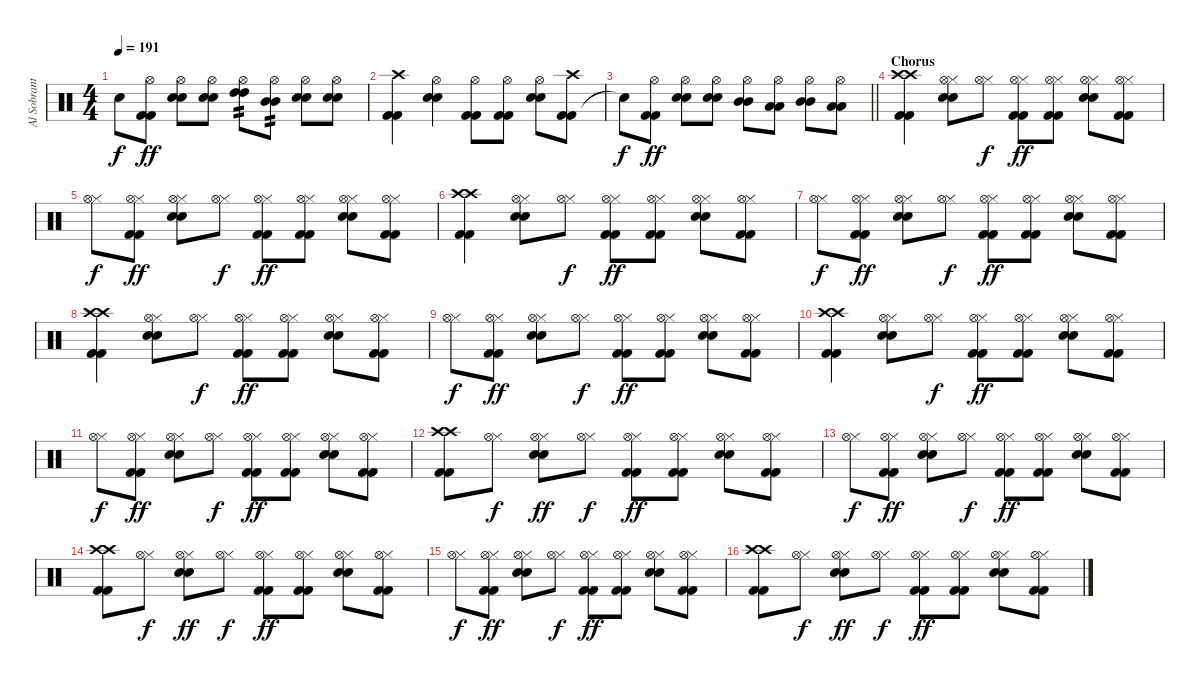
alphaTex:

\track ("Al Sobrante (Drums)" "Al Sobrant") {instrument percussion}
\staff {score}
\articulation defaults
\ts (4 4)
\tempo 191
\clef neutral
\ks c "Snare (hit)"{t}.8{dy f}
("Kick (hit) 2" "Kick (hit) 2" "Hi-Hat (open)").8{dy ff} ("Electric Snare (hit)" "Electric Snare (hit)" "Hi-Hat (open)").8 ("Electric Snare (hit)" "Electric Snare (hit)" "Hi-Hat (open)").8 ("High Tom (hit)" "High Tom (hit)" "Hi-Hat (open)").8{tp 2} ("Mid Tom (hit)" "Mid Tom (hit)" "Hi-Hat (open)").8{tp 2} ("Electric Snare (hit)" "Electric Snare (hit)" "Hi-Hat (open)").8 ("Electric Snare (hit)" "Electric Snare (hit)" "Hi-Hat (open)").8 |
("Kick (hit) 2" "Kick (hit) 2" "Crash high (hit)").4 ("Electric Snare (hit)" "Electric Snare (hit)" "Hi-Hat (open)").4 ("Kick (hit) 2" "Kick (hit) 2" "Hi-Hat (open)").8 ("Kick (hit) 2" "Kick (hit) 2" "Hi-Hat (open)").8 ("Electric Snare (hit)" "Electric Snare (hit)" "Hi-Hat (open)").8 ("Kick (hit) 2" "Kick (hit) 2" "Crash high (hit)").8 |
\barLineRight lightlight "Snare (hit)"{t}.8{dy f}
("Kick (hit) 2" "Kick (hit) 2" "Hi-Hat (open)").8{dy ff} ("Electric Snare (hit)" "Electric Snare (hit)" "Hi-Hat (open)").8 ("Electric Snare (hit)" "Electric Snare (hit)" "Hi-Hat (open)").8 ("Mid Tom (hit)" "Mid Tom (hit)" "Hi-Hat (open)").8 ("Low Tom (hit)" "Low Tom (hit)" "Hi-Hat (open)").8 ("Mid Tom (hit)" "Mid Tom (hit)" "Hi-Hat (open)").8 ("Low Tom (hit)" "Low Tom (hit)" "Hi-Hat (open)").8 |
\section ("" "Chorus")
("Kick (hit) 2" "Kick (hit) 2" "Crash high (hit)" "Crash high (hit)").4 ("Electric Snare (hit)" "Electric Snare (hit)" "Hi-Hat (closed)" "Hi-Hat (open)").8 ("Hi-Hat (closed)" "Hi-Hat (open)").8{dy f} ("Kick (hit) 2" "Kick (hit) 2" "Hi-Hat (closed)" "Hi-Hat (open)").8{dy ff} ("Kick (hit) 2" "Kick (hit) 2" "Hi-Hat (closed)" "Hi-Hat (open)").8 ("Electric Snare (hit)" "Electric Snare (hit)" "Hi-Hat (closed)" "Hi-Hat (open)").8 ("Kick (hit) 2" "Kick (hit) 2" "Hi-Hat (closed)" "Hi-Hat (open)").8 |
("Hi-Hat (closed)" "Hi-Hat (open)").8{dy f} ("Kick (hit) 2" "Kick (hit) 2" "Hi-Hat (closed)" "Hi-Hat (open)").8{dy ff} ("Electric Snare (hit)" "Electric Snare (hit)" "Hi-Hat (closed)" "Hi-Hat (open)").8 ("Hi-Hat (closed)" "Hi-Hat (open)").8{dy f} ("Kick (hit) 2" "Kick (hit) 2" "Hi-Hat (closed)" "Hi-Hat (open)").8{dy ff} ("Kick (hit) 2" "Kick (hit) 2" "Hi-Hat (closed)" "Hi-Hat (open)").8 ("Electric Snare (hit)" "Electric Snare (hit)" "Hi-Hat (closed)" "Hi-Hat (open)").8 ("Kick (hit) 2" "Kick (hit) 2" "Hi-Hat (closed)" "Hi-Hat (open)").8 |
("Kick (hit) 2" "Kick (hit) 2" "Crash high (hit)" "Crash high (hit)").4 ("Electric Snare (hit)" "Electric Snare (hit)" "Hi-Hat (closed)" "Hi-Hat (open)").8 ("Hi-Hat (closed)" "Hi-Hat (open)").8{dy f} ("Kick (hit) 2" "Kick (hit) 2" "Hi-Hat (closed)" "Hi-Hat (open)").8{dy ff} ("Kick (hit) 2" "Kick (hit) 2" "Hi-Hat (closed)" "Hi-Hat (open)").8 ("Electric Snare (hit)" "Electric Snare (hit)" "Hi-Hat (closed)" "Hi-Hat (open)").8 ("Kick (hit) 2" "Kick (hit) 2" "Hi-Hat (closed)" "Hi-Hat (open)").8 |
("Hi-Hat (closed)" "Hi-Hat (open)").8{dy f} ("Kick (hit) 2" "Kick (hit) 2" "Hi-Hat (closed)" "Hi-Hat (open)").8{dy ff} ("Electric Snare (hit)" "Electric Snare (hit)" "Hi-Hat (closed)" "Hi-Hat (open)").8 ("Hi-Hat (closed)" "Hi-Hat (open)").8{dy f} ("Kick (hit) 2" "Kick (hit) 2" "Hi-Hat (closed)" "Hi-Hat (open)").8{dy ff} ("Kick (hit) 2" "Kick (hit) 2" "Hi-Hat (closed)" "Hi-Hat (open)").8 ("Electric Snare (hit)" "Electric Snare (hit)" "Hi-Hat (closed)" "Hi-Hat (open)").8 ("Kick (hit) 2" "Kick (hit) 2" "Hi-Hat (closed)" "Hi-Hat (open)").8 |
("Kick (hit) 2" "Kick (hit) 2" "Crash high (hit)" "Crash high (hit)").4 ("Electric Snare (hit)" "Electric Snare (hit)" "Hi-Hat (closed)" "Hi-Hat (open)").8 ("Hi-Hat (closed)" "Hi-Hat (open)").8{dy f} ("Kick (hit) 2" "Kick (hit) 2" "Hi-Hat (closed)" "Hi-Hat (open)").8{dy ff} ("Kick (hit) 2" "Kick (hit) 2" "Hi-Hat (closed)" "Hi-Hat (open)").8 ("Electric Snare (hit)" "Electric Snare (hit)" "Hi-Hat (closed)" "Hi-Hat (open)").8 ("Kick (hit) 2" "Kick (hit) 2" "Hi-Hat (closed)" "Hi-Hat (open)").8 |
("Hi-Hat (closed)" "Hi-Hat (open)").8{dy f} ("Kick (hit) 2" "Kick (hit) 2" "Hi-Hat (closed)" "Hi-Hat (open)").8{dy ff} ("Electric Snare (hit)" "Electric Snare (hit)" "Hi-Hat (closed)" "Hi-Hat (open)").8 ("Hi-Hat (closed)" "Hi-Hat (open)").8{dy f} ("Kick (hit) 2" "Kick (hit) 2" "Hi-Hat (closed)" "Hi-Hat (open)").8{dy ff} ("Kick (hit) 2" "Kick (hit) 2" "Hi-Hat (closed)" "Hi-Hat (open)").8 ("Electric Snare (hit)" "Electric Snare (hit)" "Hi-Hat (closed)" "Hi-Hat (open)").8 ("Kick (hit) 2" "Kick (hit) 2" "Hi-Hat (closed)" "Hi-Hat (open)").8 |
("Kick (hit) 2" "Kick (hit) 2" "Crash high (hit)" "Crash high (hit)").4 ("Electric Snare (hit)" "Electric Snare (hit)" "Hi-Hat (closed)" "Hi-Hat (open)").8 ("Hi-Hat (closed)" "Hi-Hat (open)").8{dy f} ("Kick (hit) 2" "Kick (hit) 2" "Hi-Hat (closed)" "Hi-Hat (open)").8{dy ff} ("Kick (hit) 2" "Kick (hit) 2" "Hi-Hat (closed)" "Hi-Hat (open)").8 ("Electric Snare (hit)" "Electric Snare (hit)" "Hi-Hat (closed)" "Hi-Hat (open)").8 ("Kick (hit) 2" "Kick (hit) 2" "Hi-Hat (closed)" "Hi-Hat (open)").8 |
("Hi-Hat (closed)" "Hi-Hat (open)").8{dy f} ("Kick (hit) 2" "Kick (hit) 2" "Hi-Hat (closed)" "Hi-Hat (open)").8{dy ff} ("Electric Snare (hit)" "Electric Snare (hit)" "Hi-Hat (closed)" "Hi-Hat (open)").8 ("Hi-Hat (closed)" "Hi-Hat (open)").8{dy f} ("Kick (hit) 2" "Kick (hit) 2" "Hi-Hat (closed)" "Hi-Hat (open)").8{dy ff} ("Kick (hit) 2" "Kick (hit) 2" "Hi-Hat (closed)" "Hi-Hat (open)").8 ("Electric Snare (hit)" "Electric Snare (hit)" "Hi-Hat (closed)" "Hi-Hat (open)").8 ("Kick (hit) 2" "Kick (hit) 2" "Hi-Hat (closed)" "Hi-Hat (open)").8 |
("Kick (hit) 2" "Kick (hit) 2" "Crash high (hit)" "Crash high (hit)").8 ("Hi-Hat (closed)" "Hi-Hat (open)").8{dy f} ("Electric Snare (hit)" "Electric Snare (hit)" "Hi-Hat (closed)" "Hi-Hat (open)").8{dy ff} ("Hi-Hat (closed)" "Hi-Hat (open)").8{dy f} ("Kick (hit) 2" "Kick (hit) 2" "Hi-Hat (closed)" "Hi-Hat (open)").8{dy ff} ("Kick (hit) 2" "Kick (hit) 2" "Hi-Hat (closed)" "Hi-Hat (open)").8 ("Electric Snare (hit)" "Electric Snare (hit)" "Hi-Hat (closed)" "Hi-Hat (open)").8 ("Kick (hit) 2" "Kick (hit) 2" "Hi-Hat (closed)" "Hi-Hat (open)").8 |
("Hi-Hat (closed)" "Hi-Hat (open)").8{dy f} ("Kick (hit) 2" "Kick (hit) 2" "Hi-Hat (closed)" "Hi-Hat (open)").8{dy ff} ("Electric Snare (hit)" "Electric Snare (hit)" "Hi-Hat (closed)" "Hi-Hat (open)").8 ("Hi-Hat (closed)" "Hi-Hat (open)").8{dy f} ("Kick (hit) 2" "Kick (hit) 2" "Hi-Hat (closed)" "Hi-Hat (open)").8{dy ff} ("Kick (hit) 2" "Kick (hit) 2" "Hi-Hat (closed)" "Hi-Hat (open)").8 ("Electric Snare (hit)" "Electric Snare (hit)" "Hi-Hat (closed)" "Hi-Hat (open)").8 ("Kick (hit) 2" "Kick (hit) 2" "Hi-Hat (closed)" "Hi-Hat (open)").8 |
("Kick (hit) 2" "Kick (hit) 2" "Crash high (hit)" "Crash high (hit)").8 ("Hi-Hat (closed)" "Hi-Hat (open)").8{dy f} ("Electric Snare (hit)" "Electric Snare (hit)" "Hi-Hat (closed)" "Hi-Hat (open)").8{dy ff} ("Hi-Hat (closed)" "Hi-Hat (open)").8{dy f} ("Kick (hit) 2" "Kick (hit) 2" "Hi-Hat (closed)" "Hi-Hat (open)").8{dy ff} ("Kick (hit) 2" "Kick (hit) 2" "Hi-Hat (closed)" "Hi-Hat (open)").8 ("Electric Snare (hit)" "Electric Snare (hit)" "Hi-Hat (closed)" "Hi-Hat (open)").8 ("Kick (hit) 2" "Kick (hit) 2" "Hi-Hat (closed)" "Hi-Hat (open)").8 |
("Hi-Hat (closed)" "Hi-Hat (open)").8{dy f} ("Kick (hit) 2" "Kick (hit) 2" "Hi-Hat (closed)" "Hi-Hat (open)").8{dy ff} ("Electric Snare (hit)" "Electric Snare (hit)" "Hi-Hat (closed)" "Hi-Hat (open)").8 ("Hi-Hat (closed)" "Hi-Hat (open)").8{dy f} ("Kick (hit) 2" "Kick (hit) 2" "Hi-Hat (closed)" "Hi-Hat (open)").8{dy ff} ("Kick (hit) 2" "Kick (hit) 2" "Hi-Hat (closed)" "Hi-Hat (open)").8 ("Electric Snare (hit)" "Electric Snare (hit)" "Hi-Hat (closed)" "Hi-Hat (open)").8 ("Kick (hit) 2" "Kick (hit) 2" "Hi-Hat (closed)" "Hi-Hat (open)").8 |
("Kick (hit) 2" "Kick (hit) 2" "Crash high (hit)" "Crash high (hit)").8 ("Hi-Hat (closed)" "Hi-Hat (open)").8{dy f} ("Electric Snare (hit)" "Electric Snare (hit)" "Hi-Hat (closed)" "Hi-Hat (open)").8{dy ff} ("Hi-Hat (closed)" "Hi-Hat (open)").8{dy f} ("Kick (hit) 2" "Kick (hit) 2" "Hi-Hat (closed)" "Hi-Hat (open)").8{dy ff} ("Kick (hit) 2" "Kick (hit) 2" "Hi-Hat (closed)" "Hi-Hat (open)").8 ("Electric Snare (hit)" "Electric Snare (hit)" "Hi-Hat (closed)" "Hi-Hat (open)").8 ("Kick (hit) 2" "Kick (hit) 2" "Hi-Hat (closed)" "Hi-Hat (open)").8
